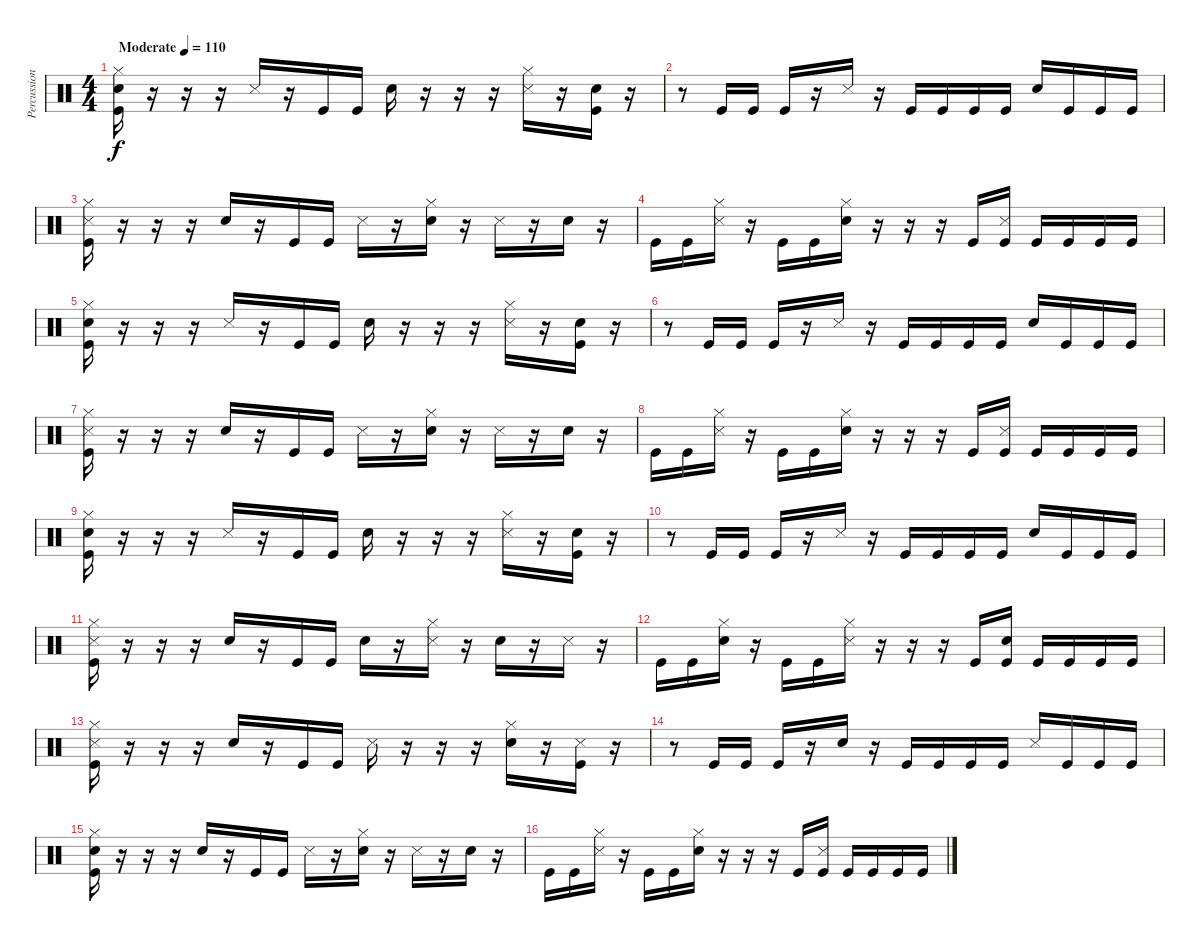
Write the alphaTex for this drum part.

\track ("Percussion" "Percussion") {instrument percussion}
\staff {score}
\articulation defaults
\ts (4 4)
\tempo (110 "Moderate")
\clef neutral
\ks c
("Hi-Hat (closed)" "Snare (hit) 2" "Kick (hit)").16{dy f} r.16 r.16 r.16 "Snare (side stick) 3".16 r.16 "Kick (hit)".16 "Kick (hit)".16 "Snare (hit) 2".16 r.16 r.16 r.16 ("Hi-Hat (closed)" "Snare (side stick) 3").16 r.16 ("Snare (hit) 2" "Kick (hit)").16 r.16 |
r.8 "Kick (hit)".16 "Kick (hit)".16 "Kick (hit)".16 r.16 "Snare (side stick) 3".16 r.16 "Kick (hit)".16 "Kick (hit)".16 "Kick (hit)".16 "Kick (hit)".16 "Snare (hit) 2".16 "Kick (hit)".16 "Kick (hit)".16 "Kick (hit)".16 |
("Hi-Hat (closed)" "Snare (side stick) 3" "Kick (hit)").16 r.16 r.16 r.16 "Snare (hit) 2".16 r.16 "Kick (hit)".16 "Kick (hit)".16 "Snare (side stick) 3".16 r.16 ("Hi-Hat (closed)" "Snare (hit) 2").16 r.16 "Snare (side stick) 3".16 r.16 "Snare (hit) 2".16 r.16 |
"Kick (hit)".16 "Kick (hit)".16 ("Hi-Hat (closed)" "Snare (side stick) 3").16 r.16 "Kick (hit)".16 "Kick (hit)".16 ("Hi-Hat (closed)" "Snare (hit) 2").16 r.16 r.16 r.16 "Kick (hit)".16 ("Snare (side stick) 3" "Kick (hit)").16 "Kick (hit)".16 "Kick (hit)".16 "Kick (hit)".16 "Kick (hit)".16 |
("Hi-Hat (closed)" "Snare (hit) 2" "Kick (hit)").16 r.16 r.16 r.16 "Snare (side stick) 3".16 r.16 "Kick (hit)".16 "Kick (hit)".16 "Snare (hit) 2".16 r.16 r.16 r.16 ("Hi-Hat (closed)" "Snare (side stick) 3").16 r.16 ("Snare (hit) 2" "Kick (hit)").16 r.16 |
r.8 "Kick (hit)".16 "Kick (hit)".16 "Kick (hit)".16 r.16 "Snare (side stick) 3".16 r.16 "Kick (hit)".16 "Kick (hit)".16 "Kick (hit)".16 "Kick (hit)".16 "Snare (hit) 2".16 "Kick (hit)".16 "Kick (hit)".16 "Kick (hit)".16 |
("Hi-Hat (closed)" "Snare (side stick) 3" "Kick (hit)").16 r.16 r.16 r.16 "Snare (hit) 2".16 r.16 "Kick (hit)".16 "Kick (hit)".16 "Snare (side stick) 3".16 r.16 ("Hi-Hat (closed)" "Snare (hit) 2").16 r.16 "Snare (side stick) 3".16 r.16 "Snare (hit) 2".16 r.16 |
"Kick (hit)".16 "Kick (hit)".16 ("Hi-Hat (closed)" "Snare (side stick) 3").16 r.16 "Kick (hit)".16 "Kick (hit)".16 ("Hi-Hat (closed)" "Snare (hit) 2").16 r.16 r.16 r.16 "Kick (hit)".16 ("Snare (side stick) 3" "Kick (hit)").16 "Kick (hit)".16 "Kick (hit)".16 "Kick (hit)".16 "Kick (hit)".16 |
("Hi-Hat (closed)" "Snare (hit) 2" "Kick (hit)").16 r.16 r.16 r.16 "Snare (side stick) 3".16 r.16 "Kick (hit)".16 "Kick (hit)".16 "Snare (hit) 2".16 r.16 r.16 r.16 ("Hi-Hat (closed)" "Snare (side stick) 3").16 r.16 ("Snare (hit) 2" "Kick (hit)").16 r.16 |
r.8 "Kick (hit)".16 "Kick (hit)".16 "Kick (hit)".16 r.16 "Snare (side stick) 3".16 r.16 "Kick (hit)".16 "Kick (hit)".16 "Kick (hit)".16 "Kick (hit)".16 "Snare (hit) 2".16 "Kick (hit)".16 "Kick (hit)".16 "Kick (hit)".16 |
("Hi-Hat (closed)" "Snare (side stick) 3" "Kick (hit)").16 r.16 r.16 r.16 "Snare (hit) 2".16 r.16 "Kick (hit)".16 "Kick (hit)".16 "Snare (hit) 2".16 r.16 ("Hi-Hat (closed)" "Snare (side stick) 3").16 r.16 "Snare (hit) 2".16 r.16 "Snare (side stick) 3".16 r.16 |
"Kick (hit)".16 "Kick (hit)".16 ("Hi-Hat (closed)" "Snare (hit) 2").16 r.16 "Kick (hit)".16 "Kick (hit)".16 ("Hi-Hat (closed)" "Snare (side stick) 3").16 r.16 r.16 r.16 "Kick (hit)".16 ("Snare (hit) 2" "Kick (hit)").16 "Kick (hit)".16 "Kick (hit)".16 "Kick (hit)".16 "Kick (hit)".16 |
("Hi-Hat (closed)" "Snare (side stick) 3" "Kick (hit)").16 r.16 r.16 r.16 "Snare (hit) 2".16 r.16 "Kick (hit)".16 "Kick (hit)".16 "Snare (side stick) 3".16 r.16 r.16 r.16 ("Hi-Hat (closed)" "Snare (hit) 2").16 r.16 ("Snare (side stick) 3" "Kick (hit)").16 r.16 |
r.8 "Kick (hit)".16 "Kick (hit)".16 "Kick (hit)".16 r.16 "Snare (hit) 2".16 r.16 "Kick (hit)".16 "Kick (hit)".16 "Kick (hit)".16 "Kick (hit)".16 "Snare (side stick) 3".16 "Kick (hit)".16 "Kick (hit)".16 "Kick (hit)".16 |
("Hi-Hat (closed)" "Snare (hit) 2" "Kick (hit)").16 r.16 r.16 r.16 "Snare (hit) 2".16 r.16 "Kick (hit)".16 "Kick (hit)".16 "Snare (side stick) 3".16 r.16 ("Hi-Hat (closed)" "Snare (hit) 2").16 r.16 "Snare (side stick) 3".16 r.16 "Snare (hit) 2".16 r.16 |
"Kick (hit)".16 "Kick (hit)".16 ("Hi-Hat (closed)" "Snare (side stick) 3").16 r.16 "Kick (hit)".16 "Kick (hit)".16 ("Hi-Hat (closed)" "Snare (hit) 2").16 r.16 r.16 r.16 "Kick (hit)".16 ("Snare (side stick) 3" "Kick (hit)").16 "Kick (hit)".16 "Kick (hit)".16 "Kick (hit)".16 "Kick (hit)".16
